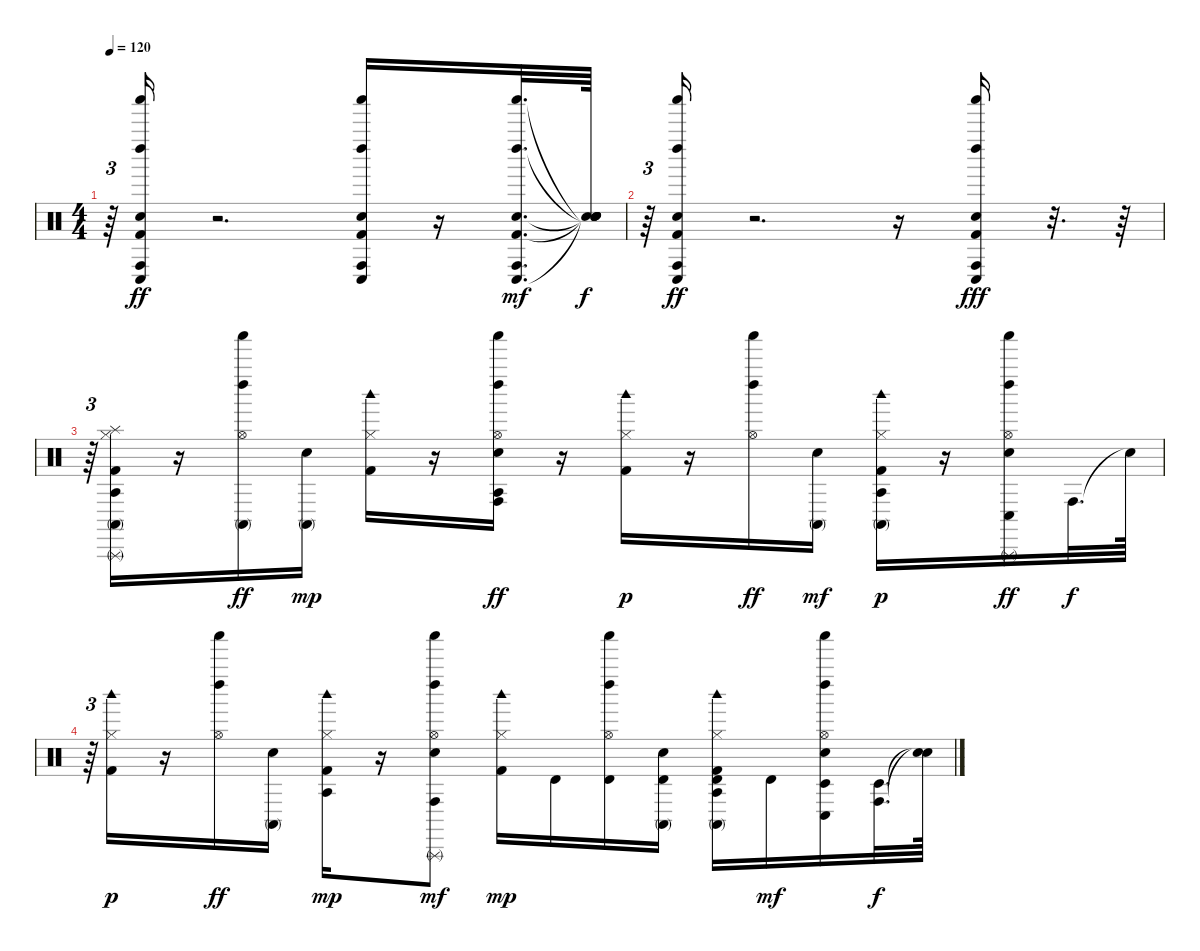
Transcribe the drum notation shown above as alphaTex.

\track "" {instrument percussion}
\staff {score}
\articulation defaults
\ts (4 4)
\tempo 120
\clef neutral
\ks c
r.64{tu (3 2) dy f} ("Kick (hit) 2" "Shaker (hit)" "Left Maraca (hit)" "Electric Snare (hit)" "Conga low (hit)" "Conga high (hit)").16{dy ff} r.2{d} ("Kick (hit) 2" "Shaker (hit)" "Left Maraca (hit)" "Electric Snare (hit)" "Conga low (hit)" "Conga high (hit)").16 r.16 ("Kick (hit) 2" "Shaker (hit)" "Left Maraca (hit)" "Electric Snare (hit)" "Conga low (hit)" "Conga high (hit)").32{d dy mf} ("Snare (hit)"{t} "Snare (hit)"{t} "Snare (hit)"{t} "Snare (hit)"{t} "Snare (hit)"{t}).64{dy f} |
r.64{tu (3 2)} ("Kick (hit) 2" "Shaker (hit)" "Left Maraca (hit)" "Electric Snare (hit)" "Conga low (hit)" "Conga high (hit)").16{dy ff} r.2{d} r.16 ("Kick (hit) 2" "Shaker (hit)" "Left Maraca (hit)" "Electric Snare (hit)" "Conga low (hit)" "Conga high (hit)").16{dy fff} r.32{d} r.64 |
r.64{tu (3 2)} ("Kick (hit) 2" "Conga high (mute)" "Hi-Hat (closed)" "Splash (hit)" "Triangle (rnute)" "Agogo tow (hit)").16 r.16 ("Shaker (hit)" "Left Maraca (hit)" "Conga high (mute)" "Hi-Hat (open)").16{dy ff} ("Electric Snare (hit)" "Conga high (mute)").16{dy mp} ("Kick (hit) 2" "Hi-Hat (closed)" "Woodblock high (hit)").16 r.16 ("Shaker (hit)" "Left Maraca (hit)" "Electric Snare (hit)" "Conga high (hit)" "Hi-Hat (open)" "Agogo tow (hit)").16{dy ff} r.16 ("Kick (hit) 2" "Hi-Hat (closed)" "Woodblock high (hit)").16{dy p} r.16 ("Shaker (hit)" "Left Maraca (hit)" "Hi-Hat (open)").16{dy ff} ("Electric Snare (hit)" "Conga high (mute)").16{dy mf} ("Kick (hit) 2" "Conga high (mute)" "Hi-Hat (closed)" "Agogo tow (hit)" "Woodblock high (hit)").16{dy p} r.16 ("Shaker (hit)" "Left Maraca (hit)" "Electric Snare (hit)" "Conga low (hit)" "Hi-Hat (open)" "Triangle (rnute)").16{dy ff} "Conga high (hit)".32{d dy f} "Snare (hit)"{t}.64 |
r.64{tu (3 2)} ("Kick (hit) 2" "Hi-Hat (closed)" "Woodblock high (hit)").16{dy p} r.16 ("Shaker (hit)" "Left Maraca (hit)" "Hi-Hat (open)").16{dy ff} ("Electric Snare (hit)" "Conga high (mute)").16 ("Kick (hit) 2" "Hi-Hat (closed)" "Agogo tow (hit)" "Woodblock high (hit)").16{dy mp} r.16 ("Shaker (hit)" "Left Maraca (hit)" "Electric Snare (hit)" "Conga high (hit)" "Hi-Hat (open)" "Triangle (rnute)").8{dy mf} ("Kick (hit) 2" "Hi-Hat (closed)" "Woodblock high (hit)").16{dy mp} "Timbale high (hit)".16 ("Shaker (hit)" "Left Maraca (hit)" "Hi-Hat (open)" "Timbale high (hit)").16 ("Electric Snare (hit)" "Conga high (mute)" "Timbale high (hit)").16 ("Kick (hit) 2" "Conga high (mute)" "Hi-Hat (closed)" "Timbale high (hit)" "Agogo tow (hit)" "Woodblock high (hit)").16 "Timbale high (hit)".16{dy mf} ("Shaker (hit)" "Left Maraca (hit)" "Electric Snare (hit)" "Conga low (hit)" "Hi-Hat (open)" "Timbale low (hit)").16 ("Conga high (hit)" "Timbale low (hit)").32{d dy f} ("Snare (hit)"{t} "Snare (hit)"{t}).64
